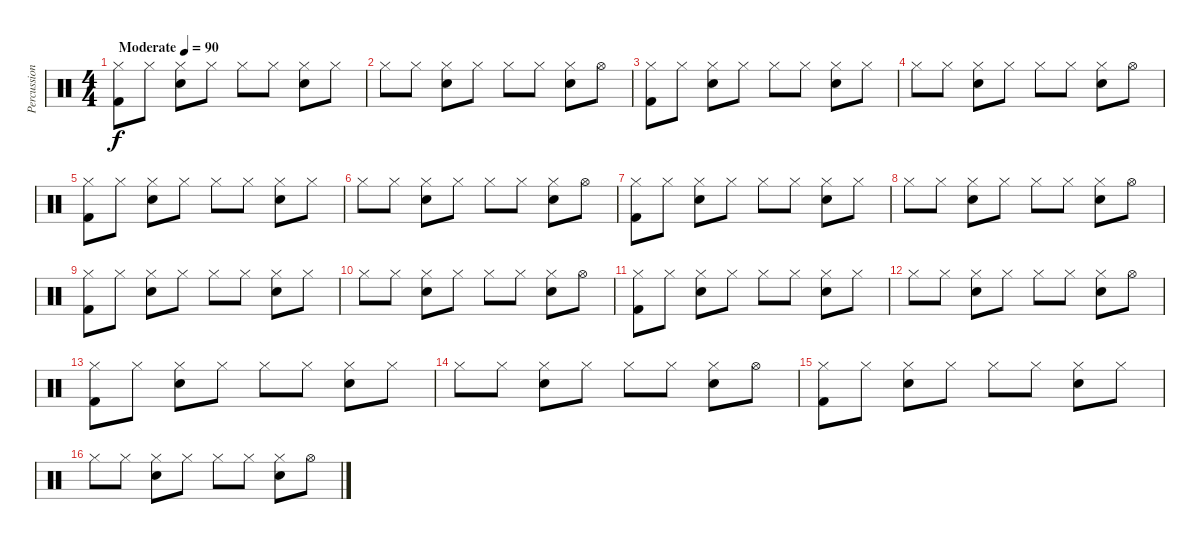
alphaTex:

\track ("Percussion" "Percussion") {instrument percussion}
\staff {score}
\articulation defaults
\ts (4 4)
\tempo (90 "Moderate")
\clef neutral
\ks c
("Hi-Hat (closed)" "Kick (hit) 2").8{dy f} "Hi-Hat (closed)".8 ("Hi-Hat (closed)" "Snare (hit) 2").8 "Hi-Hat (closed)".8 "Hi-Hat (closed)".8 "Hi-Hat (closed)".8 ("Hi-Hat (closed)" "Snare (hit) 2").8 "Hi-Hat (closed)".8 |
"Hi-Hat (closed)".8 "Hi-Hat (closed)".8 ("Hi-Hat (closed)" "Snare (hit) 2").8 "Hi-Hat (closed)".8 "Hi-Hat (closed)".8 "Hi-Hat (closed)".8 ("Hi-Hat (closed)" "Snare (hit) 2").8 "Hi-Hat (open)".8 |
("Hi-Hat (closed)" "Kick (hit) 2").8 "Hi-Hat (closed)".8 ("Hi-Hat (closed)" "Snare (hit) 2").8 "Hi-Hat (closed)".8 "Hi-Hat (closed)".8 "Hi-Hat (closed)".8 ("Hi-Hat (closed)" "Snare (hit) 2").8 "Hi-Hat (closed)".8 |
"Hi-Hat (closed)".8 "Hi-Hat (closed)".8 ("Hi-Hat (closed)" "Snare (hit) 2").8 "Hi-Hat (closed)".8 "Hi-Hat (closed)".8 "Hi-Hat (closed)".8 ("Hi-Hat (closed)" "Snare (hit) 2").8 "Hi-Hat (open)".8 |
("Hi-Hat (closed)" "Kick (hit) 2").8 "Hi-Hat (closed)".8 ("Hi-Hat (closed)" "Snare (hit) 2").8 "Hi-Hat (closed)".8 "Hi-Hat (closed)".8 "Hi-Hat (closed)".8 ("Hi-Hat (closed)" "Snare (hit) 2").8 "Hi-Hat (closed)".8 |
"Hi-Hat (closed)".8 "Hi-Hat (closed)".8 ("Hi-Hat (closed)" "Snare (hit) 2").8 "Hi-Hat (closed)".8 "Hi-Hat (closed)".8 "Hi-Hat (closed)".8 ("Hi-Hat (closed)" "Snare (hit) 2").8 "Hi-Hat (open)".8 |
("Hi-Hat (closed)" "Kick (hit) 2").8 "Hi-Hat (closed)".8 ("Hi-Hat (closed)" "Snare (hit) 2").8 "Hi-Hat (closed)".8 "Hi-Hat (closed)".8 "Hi-Hat (closed)".8 ("Hi-Hat (closed)" "Snare (hit) 2").8 "Hi-Hat (closed)".8 |
"Hi-Hat (closed)".8 "Hi-Hat (closed)".8 ("Hi-Hat (closed)" "Snare (hit) 2").8 "Hi-Hat (closed)".8 "Hi-Hat (closed)".8 "Hi-Hat (closed)".8 ("Hi-Hat (closed)" "Snare (hit) 2").8 "Hi-Hat (open)".8 |
("Hi-Hat (closed)" "Kick (hit) 2").8 "Hi-Hat (closed)".8 ("Hi-Hat (closed)" "Snare (hit) 2").8 "Hi-Hat (closed)".8 "Hi-Hat (closed)".8 "Hi-Hat (closed)".8 ("Hi-Hat (closed)" "Snare (hit) 2").8 "Hi-Hat (closed)".8 |
"Hi-Hat (closed)".8 "Hi-Hat (closed)".8 ("Hi-Hat (closed)" "Snare (hit) 2").8 "Hi-Hat (closed)".8 "Hi-Hat (closed)".8 "Hi-Hat (closed)".8 ("Hi-Hat (closed)" "Snare (hit) 2").8 "Hi-Hat (open)".8 |
("Hi-Hat (closed)" "Kick (hit) 2").8 "Hi-Hat (closed)".8 ("Hi-Hat (closed)" "Snare (hit) 2").8 "Hi-Hat (closed)".8 "Hi-Hat (closed)".8 "Hi-Hat (closed)".8 ("Hi-Hat (closed)" "Snare (hit) 2").8 "Hi-Hat (closed)".8 |
"Hi-Hat (closed)".8 "Hi-Hat (closed)".8 ("Hi-Hat (closed)" "Snare (hit) 2").8 "Hi-Hat (closed)".8 "Hi-Hat (closed)".8 "Hi-Hat (closed)".8 ("Hi-Hat (closed)" "Snare (hit) 2").8 "Hi-Hat (open)".8 |
("Hi-Hat (closed)" "Kick (hit) 2").8 "Hi-Hat (closed)".8 ("Hi-Hat (closed)" "Snare (hit) 2").8 "Hi-Hat (closed)".8 "Hi-Hat (closed)".8 "Hi-Hat (closed)".8 ("Hi-Hat (closed)" "Snare (hit) 2").8 "Hi-Hat (closed)".8 |
"Hi-Hat (closed)".8 "Hi-Hat (closed)".8 ("Hi-Hat (closed)" "Snare (hit) 2").8 "Hi-Hat (closed)".8 "Hi-Hat (closed)".8 "Hi-Hat (closed)".8 ("Hi-Hat (closed)" "Snare (hit) 2").8 "Hi-Hat (open)".8 |
("Hi-Hat (closed)" "Kick (hit) 2").8 "Hi-Hat (closed)".8 ("Hi-Hat (closed)" "Snare (hit) 2").8 "Hi-Hat (closed)".8 "Hi-Hat (closed)".8 "Hi-Hat (closed)".8 ("Hi-Hat (closed)" "Snare (hit) 2").8 "Hi-Hat (closed)".8 |
"Hi-Hat (closed)".8 "Hi-Hat (closed)".8 ("Hi-Hat (closed)" "Snare (hit) 2").8 "Hi-Hat (closed)".8 "Hi-Hat (closed)".8 "Hi-Hat (closed)".8 ("Hi-Hat (closed)" "Snare (hit) 2").8 "Hi-Hat (open)".8
